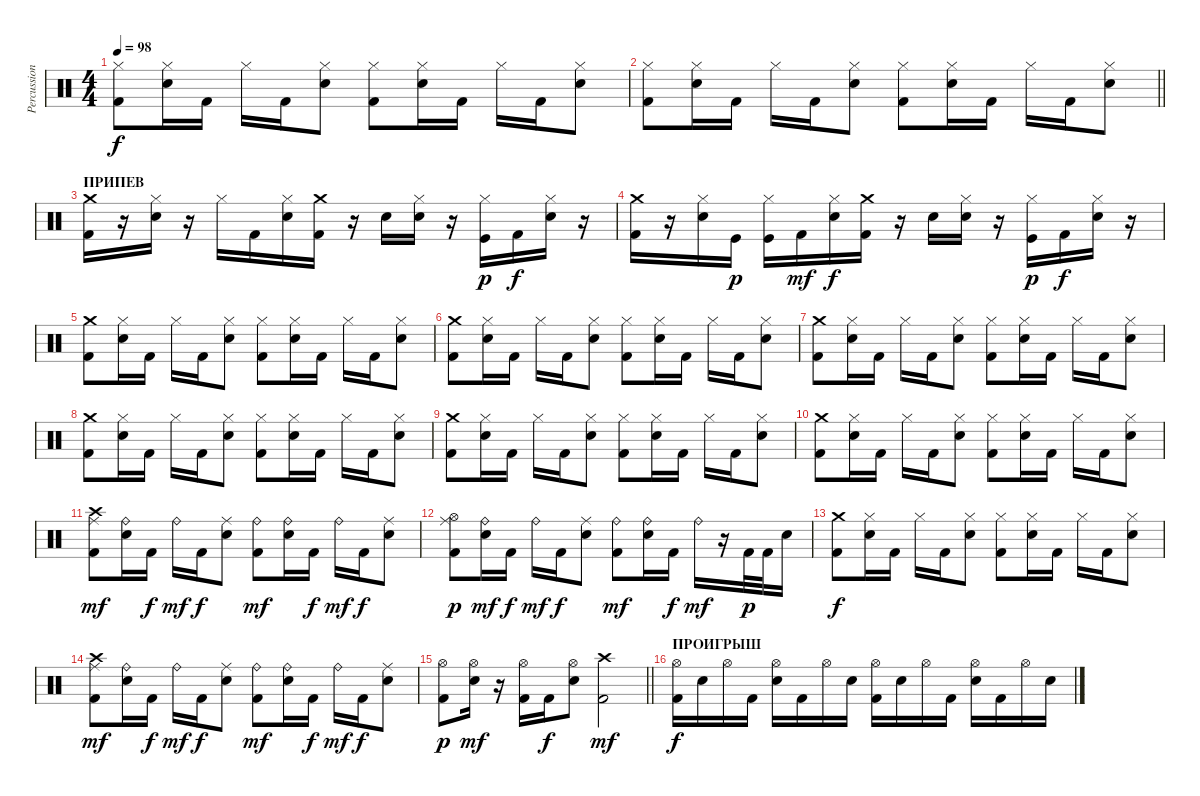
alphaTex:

\track ("Percussion" "Percussion") {instrument percussion}
\staff {score}
\articulation defaults
\ts (4 4)
\tempo 98
\clef neutral
\ks c
("Hi-Hat (closed)" "Kick (hit) 2").8{dy f} ("Hi-Hat (closed)" "Electric Snare (hit)").16 "Kick (hit) 2".16 "Hi-Hat (closed)".16 "Kick (hit) 2".16 ("Hi-Hat (closed)" "Electric Snare (hit)").8 ("Hi-Hat (closed)" "Kick (hit) 2").8 ("Hi-Hat (closed)" "Electric Snare (hit)").16 "Kick (hit) 2".16 "Hi-Hat (closed)".16 "Kick (hit) 2".16 ("Hi-Hat (closed)" "Electric Snare (hit)").8 |
\barLineRight lightlight
("Hi-Hat (closed)" "Kick (hit) 2").8 ("Hi-Hat (closed)" "Electric Snare (hit)").16 "Kick (hit) 2".16 "Hi-Hat (closed)".16 "Kick (hit) 2".16 ("Hi-Hat (closed)" "Electric Snare (hit)").8 ("Hi-Hat (closed)" "Kick (hit) 2").8 ("Hi-Hat (closed)" "Electric Snare (hit)").16 "Kick (hit) 2".16 "Hi-Hat (closed)".16 "Kick (hit) 2".16 ("Hi-Hat (closed)" "Electric Snare (hit)").8 |
\section ("" "ПРИПЕВ")
("Crash medium (hit)" "Kick (hit) 2").16 r.16 ("Hi-Hat (closed)" "Electric Snare (hit)").16 r.16 "Hi-Hat (closed)".16 "Kick (hit) 2".16 ("Hi-Hat (closed)" "Electric Snare (hit)").16 ("Crash medium (hit)" "Kick (hit) 2").16 r.16 "Snare (hit)".16 ("Hi-Hat (closed)" "Electric Snare (hit)").16 r.16 ("Hi-Hat (closed)" "Kick (hit)").16{dy p} "Kick (hit) 2".16{dy f} ("Hi-Hat (closed)" "Electric Snare (hit)").16 r.16 |
("Crash medium (hit)" "Kick (hit) 2").16 r.16 ("Hi-Hat (closed)" "Electric Snare (hit)").16 "Kick (hit)".16{dy p} ("Hi-Hat (closed)" "Kick (hit)").16 "Kick (hit) 2".16{dy mf} ("Hi-Hat (closed)" "Electric Snare (hit)").16{dy f} ("Crash medium (hit)" "Kick (hit) 2").16 r.16 "Snare (hit)".16 ("Hi-Hat (closed)" "Electric Snare (hit)").16 r.16 ("Hi-Hat (closed)" "Kick (hit)").16{dy p} "Kick (hit) 2".16{dy f} ("Hi-Hat (closed)" "Electric Snare (hit)").16 r.16 |
("Crash medium (hit)" "Kick (hit) 2").8 ("Hi-Hat (closed)" "Electric Snare (hit)").16 "Kick (hit) 2".16 "Hi-Hat (closed)".16 "Kick (hit) 2".16 ("Hi-Hat (closed)" "Electric Snare (hit)").8 ("Hi-Hat (closed)" "Kick (hit) 2").8 ("Hi-Hat (closed)" "Electric Snare (hit)").16 "Kick (hit) 2".16 "Hi-Hat (closed)".16 "Kick (hit) 2".16 ("Hi-Hat (closed)" "Electric Snare (hit)").8 |
("Crash medium (hit)" "Kick (hit) 2").8 ("Hi-Hat (closed)" "Electric Snare (hit)").16 "Kick (hit) 2".16 "Hi-Hat (closed)".16 "Kick (hit) 2".16 ("Hi-Hat (closed)" "Electric Snare (hit)").8 ("Hi-Hat (closed)" "Kick (hit) 2").8 ("Hi-Hat (closed)" "Electric Snare (hit)").16 "Kick (hit) 2".16 "Hi-Hat (closed)".16 "Kick (hit) 2".16 ("Hi-Hat (closed)" "Electric Snare (hit)").8 |
("Crash medium (hit)" "Kick (hit) 2").8 ("Hi-Hat (closed)" "Electric Snare (hit)").16 "Kick (hit) 2".16 "Hi-Hat (closed)".16 "Kick (hit) 2".16 ("Hi-Hat (closed)" "Electric Snare (hit)").8 ("Hi-Hat (closed)" "Kick (hit) 2").8 ("Hi-Hat (closed)" "Electric Snare (hit)").16 "Kick (hit) 2".16 "Hi-Hat (closed)".16 "Kick (hit) 2".16 ("Hi-Hat (closed)" "Electric Snare (hit)").8 |
("Crash medium (hit)" "Kick (hit) 2").8 ("Hi-Hat (closed)" "Electric Snare (hit)").16 "Kick (hit) 2".16 "Hi-Hat (closed)".16 "Kick (hit) 2".16 ("Hi-Hat (closed)" "Electric Snare (hit)").8 ("Hi-Hat (closed)" "Kick (hit) 2").8 ("Hi-Hat (closed)" "Electric Snare (hit)").16 "Kick (hit) 2".16 "Hi-Hat (closed)".16 "Kick (hit) 2".16 ("Hi-Hat (closed)" "Electric Snare (hit)").8 |
("Crash medium (hit)" "Kick (hit) 2").8 ("Hi-Hat (closed)" "Electric Snare (hit)").16 "Kick (hit) 2".16 "Hi-Hat (closed)".16 "Kick (hit) 2".16 ("Hi-Hat (closed)" "Electric Snare (hit)").8 ("Hi-Hat (closed)" "Kick (hit) 2").8 ("Hi-Hat (closed)" "Electric Snare (hit)").16 "Kick (hit) 2".16 "Hi-Hat (closed)".16 "Kick (hit) 2".16 ("Hi-Hat (closed)" "Electric Snare (hit)").8 |
("Crash medium (hit)" "Kick (hit) 2").8 ("Hi-Hat (closed)" "Electric Snare (hit)").16 "Kick (hit) 2".16 "Hi-Hat (closed)".16 "Kick (hit) 2".16 ("Hi-Hat (closed)" "Electric Snare (hit)").8 ("Hi-Hat (closed)" "Kick (hit) 2").8 ("Hi-Hat (closed)" "Electric Snare (hit)").16 "Kick (hit) 2".16 "Hi-Hat (closed)".16 "Kick (hit) 2".16 ("Hi-Hat (closed)" "Electric Snare (hit)").8 |
("Crash high (hit)" "Kick (hit) 2" "Ride (middle)").8{dy mf} ("Ride (bell)" "Electric Snare (hit)").16 "Kick (hit) 2".16{dy f} "Ride (bell)".16{dy mf} "Kick (hit) 2".16{dy f} ("Ride (middle)" "Electric Snare (hit)").8 ("Ride (bell)" "Kick (hit) 2").8{dy mf} ("Ride (bell)" "Electric Snare (hit)").16 "Kick (hit) 2".16{dy f} "Ride (bell)".16{dy mf} "Kick (hit) 2".16{dy f} ("Ride (middle)" "Electric Snare (hit)").8 |
("Kick (hit) 2" "Ride (middle)" "Hi-Hat (open)").8{dy p} ("Ride (bell)" "Electric Snare (hit)").16{dy mf} "Kick (hit) 2".16{dy f} "Ride (bell)".16{dy mf} "Kick (hit) 2".16{dy f} ("Ride (middle)" "Electric Snare (hit)").8 ("Ride (bell)" "Kick (hit) 2").8{dy mf} ("Ride (bell)" "Electric Snare (hit)").16 "Kick (hit) 2".16{dy f} "Ride (bell)".16{dy mf} r.16 "Kick (hit) 2".32{dy p} "Kick (hit) 2".32 "Electric Snare (hit)".16 |
("Crash medium (hit)" "Kick (hit) 2").8{dy f} ("Hi-Hat (closed)" "Electric Snare (hit)").16 "Kick (hit) 2".16 "Hi-Hat (closed)".16 "Kick (hit) 2".16 ("Hi-Hat (closed)" "Electric Snare (hit)").8 ("Hi-Hat (closed)" "Kick (hit) 2").8 ("Hi-Hat (closed)" "Electric Snare (hit)").16 "Kick (hit) 2".16 "Hi-Hat (closed)".16 "Kick (hit) 2".16 ("Hi-Hat (closed)" "Electric Snare (hit)").8 |
("Crash high (hit)" "Kick (hit) 2" "Ride (middle)").8{dy mf} ("Ride (bell)" "Electric Snare (hit)").16 "Kick (hit) 2".16{dy f} "Ride (bell)".16{dy mf} "Kick (hit) 2".16{dy f} ("Ride (middle)" "Electric Snare (hit)").8 ("Ride (bell)" "Kick (hit) 2").8{dy mf} ("Ride (bell)" "Electric Snare (hit)").16 "Kick (hit) 2".16{dy f} "Ride (bell)".16{dy mf} "Kick (hit) 2".16{dy f} ("Ride (middle)" "Electric Snare (hit)").8 |
\barLineRight lightlight
("Hi-Hat (open)" "Kick (hit) 2").8{dy p} ("Hi-Hat (open)" "Electric Snare (hit)").16{dy mf} r.16 ("Hi-Hat (open)" "Kick (hit) 2").16 "Kick (hit) 2".16{dy f} ("Hi-Hat (open)" "Electric Snare (hit)").8 ("Crash high (hit)" "Kick (hit) 2").2{dy mf} |
\section ("" "ПРОИГРЫШ")
("Hi-Hat (open)" "Kick (hit) 2").16{dy f} "Electric Snare (hit)".16 "Hi-Hat (open)".16 "Kick (hit) 2".16 ("Hi-Hat (open)" "Electric Snare (hit)").16 "Kick (hit) 2".16 "Hi-Hat (open)".16 "Electric Snare (hit)".16 ("Hi-Hat (open)" "Kick (hit) 2").16 "Electric Snare (hit)".16 "Hi-Hat (open)".16 "Kick (hit) 2".16 ("Hi-Hat (open)" "Electric Snare (hit)").16 "Kick (hit) 2".16 "Hi-Hat (open)".16 "Electric Snare (hit)".16
